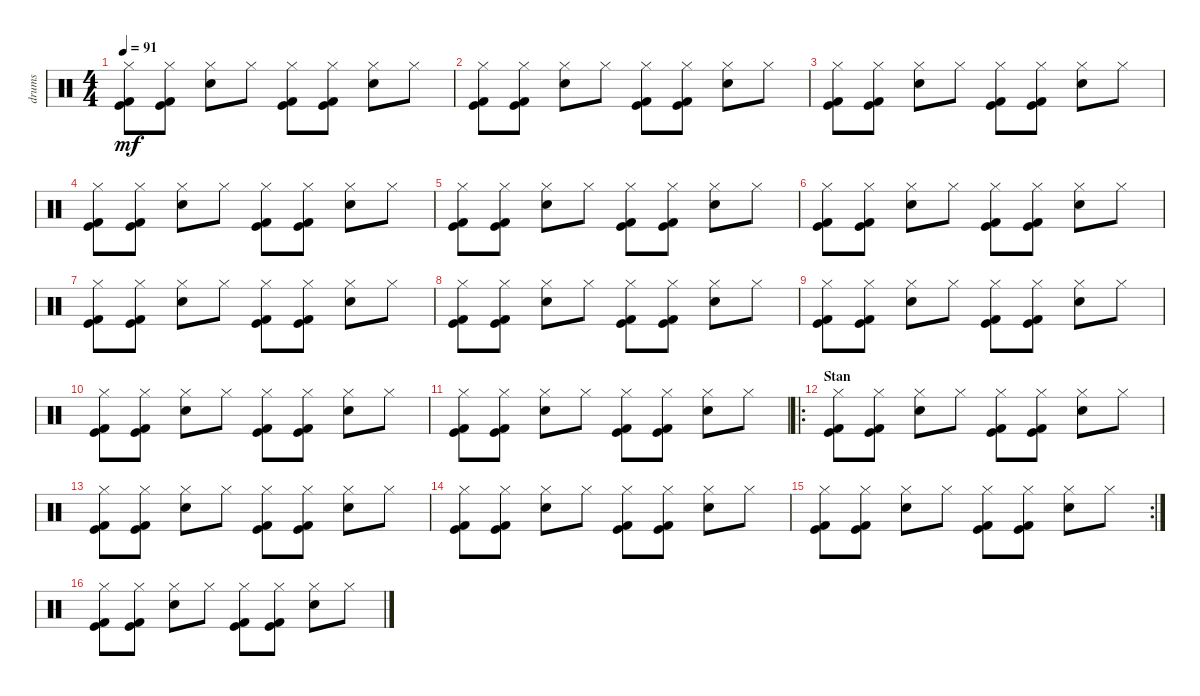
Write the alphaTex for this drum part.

\track ("drums" "drums") {instrument percussion}
\staff {score}
\articulation defaults
\ts (4 4)
\tempo 91
\clef neutral
\ks c
("Hi-Hat (closed)" "Kick (hit) 2" "Kick (hit)").8{dy mf} ("Hi-Hat (closed)" "Kick (hit) 2" "Kick (hit)").8 ("Hi-Hat (closed)" "Electric Snare (hit)").8 "Hi-Hat (closed)".8 ("Hi-Hat (closed)" "Kick (hit) 2" "Kick (hit)").8 ("Hi-Hat (closed)" "Kick (hit) 2" "Kick (hit)").8 ("Hi-Hat (closed)" "Electric Snare (hit)").8 "Hi-Hat (closed)".8 |
("Hi-Hat (closed)" "Kick (hit) 2" "Kick (hit)").8 ("Hi-Hat (closed)" "Kick (hit) 2" "Kick (hit)").8 ("Hi-Hat (closed)" "Electric Snare (hit)").8 "Hi-Hat (closed)".8 ("Hi-Hat (closed)" "Kick (hit) 2" "Kick (hit)").8 ("Hi-Hat (closed)" "Kick (hit) 2" "Kick (hit)").8 ("Hi-Hat (closed)" "Electric Snare (hit)").8 "Hi-Hat (closed)".8 |
("Hi-Hat (closed)" "Kick (hit) 2" "Kick (hit)").8 ("Hi-Hat (closed)" "Kick (hit) 2" "Kick (hit)").8 ("Hi-Hat (closed)" "Electric Snare (hit)").8 "Hi-Hat (closed)".8 ("Hi-Hat (closed)" "Kick (hit) 2" "Kick (hit)").8 ("Hi-Hat (closed)" "Kick (hit) 2" "Kick (hit)").8 ("Hi-Hat (closed)" "Electric Snare (hit)").8 "Hi-Hat (closed)".8 |
("Hi-Hat (closed)" "Kick (hit) 2" "Kick (hit)").8 ("Hi-Hat (closed)" "Kick (hit) 2" "Kick (hit)").8 ("Hi-Hat (closed)" "Electric Snare (hit)").8 "Hi-Hat (closed)".8 ("Hi-Hat (closed)" "Kick (hit) 2" "Kick (hit)").8 ("Hi-Hat (closed)" "Kick (hit) 2" "Kick (hit)").8 ("Hi-Hat (closed)" "Electric Snare (hit)").8 "Hi-Hat (closed)".8 |
("Hi-Hat (closed)" "Kick (hit) 2" "Kick (hit)").8 ("Hi-Hat (closed)" "Kick (hit) 2" "Kick (hit)").8 ("Hi-Hat (closed)" "Electric Snare (hit)").8 "Hi-Hat (closed)".8 ("Hi-Hat (closed)" "Kick (hit) 2" "Kick (hit)").8 ("Hi-Hat (closed)" "Kick (hit) 2" "Kick (hit)").8 ("Hi-Hat (closed)" "Electric Snare (hit)").8 "Hi-Hat (closed)".8 |
("Hi-Hat (closed)" "Kick (hit) 2" "Kick (hit)").8 ("Hi-Hat (closed)" "Kick (hit) 2" "Kick (hit)").8 ("Hi-Hat (closed)" "Electric Snare (hit)").8 "Hi-Hat (closed)".8 ("Hi-Hat (closed)" "Kick (hit) 2" "Kick (hit)").8 ("Hi-Hat (closed)" "Kick (hit) 2" "Kick (hit)").8 ("Hi-Hat (closed)" "Electric Snare (hit)").8 "Hi-Hat (closed)".8 |
("Hi-Hat (closed)" "Kick (hit) 2" "Kick (hit)").8 ("Hi-Hat (closed)" "Kick (hit) 2" "Kick (hit)").8 ("Hi-Hat (closed)" "Electric Snare (hit)").8 "Hi-Hat (closed)".8 ("Hi-Hat (closed)" "Kick (hit) 2" "Kick (hit)").8 ("Hi-Hat (closed)" "Kick (hit) 2" "Kick (hit)").8 ("Hi-Hat (closed)" "Electric Snare (hit)").8 "Hi-Hat (closed)".8 |
("Hi-Hat (closed)" "Kick (hit) 2" "Kick (hit)").8 ("Hi-Hat (closed)" "Kick (hit) 2" "Kick (hit)").8 ("Hi-Hat (closed)" "Electric Snare (hit)").8 "Hi-Hat (closed)".8 ("Hi-Hat (closed)" "Kick (hit) 2" "Kick (hit)").8 ("Hi-Hat (closed)" "Kick (hit) 2" "Kick (hit)").8 ("Hi-Hat (closed)" "Electric Snare (hit)").8 "Hi-Hat (closed)".8 |
("Hi-Hat (closed)" "Kick (hit) 2" "Kick (hit)").8 ("Hi-Hat (closed)" "Kick (hit) 2" "Kick (hit)").8 ("Hi-Hat (closed)" "Electric Snare (hit)").8 "Hi-Hat (closed)".8 ("Hi-Hat (closed)" "Kick (hit) 2" "Kick (hit)").8 ("Hi-Hat (closed)" "Kick (hit) 2" "Kick (hit)").8 ("Hi-Hat (closed)" "Electric Snare (hit)").8 "Hi-Hat (closed)".8 |
("Hi-Hat (closed)" "Kick (hit) 2" "Kick (hit)").8 ("Hi-Hat (closed)" "Kick (hit) 2" "Kick (hit)").8 ("Hi-Hat (closed)" "Electric Snare (hit)").8 "Hi-Hat (closed)".8 ("Hi-Hat (closed)" "Kick (hit) 2" "Kick (hit)").8 ("Hi-Hat (closed)" "Kick (hit) 2" "Kick (hit)").8 ("Hi-Hat (closed)" "Electric Snare (hit)").8 "Hi-Hat (closed)".8 |
("Hi-Hat (closed)" "Kick (hit) 2" "Kick (hit)").8 ("Hi-Hat (closed)" "Kick (hit) 2" "Kick (hit)").8 ("Hi-Hat (closed)" "Electric Snare (hit)").8 "Hi-Hat (closed)".8 ("Hi-Hat (closed)" "Kick (hit) 2" "Kick (hit)").8 ("Hi-Hat (closed)" "Kick (hit) 2" "Kick (hit)").8 ("Hi-Hat (closed)" "Electric Snare (hit)").8 "Hi-Hat (closed)".8 |
\ro
\section ("" "Stan")
("Hi-Hat (closed)" "Kick (hit) 2" "Kick (hit)").8 ("Hi-Hat (closed)" "Kick (hit) 2" "Kick (hit)").8 ("Hi-Hat (closed)" "Electric Snare (hit)").8 "Hi-Hat (closed)".8 ("Hi-Hat (closed)" "Kick (hit) 2" "Kick (hit)").8 ("Hi-Hat (closed)" "Kick (hit) 2" "Kick (hit)").8 ("Hi-Hat (closed)" "Electric Snare (hit)").8 "Hi-Hat (closed)".8 |
("Hi-Hat (closed)" "Kick (hit) 2" "Kick (hit)").8 ("Hi-Hat (closed)" "Kick (hit) 2" "Kick (hit)").8 ("Hi-Hat (closed)" "Electric Snare (hit)").8 "Hi-Hat (closed)".8 ("Hi-Hat (closed)" "Kick (hit) 2" "Kick (hit)").8 ("Hi-Hat (closed)" "Kick (hit) 2" "Kick (hit)").8 ("Hi-Hat (closed)" "Electric Snare (hit)").8 "Hi-Hat (closed)".8 |
("Hi-Hat (closed)" "Kick (hit) 2" "Kick (hit)").8 ("Hi-Hat (closed)" "Kick (hit) 2" "Kick (hit)").8 ("Hi-Hat (closed)" "Electric Snare (hit)").8 "Hi-Hat (closed)".8 ("Hi-Hat (closed)" "Kick (hit) 2" "Kick (hit)").8 ("Hi-Hat (closed)" "Kick (hit) 2" "Kick (hit)").8 ("Hi-Hat (closed)" "Electric Snare (hit)").8 "Hi-Hat (closed)".8 |
\rc 2
("Hi-Hat (closed)" "Kick (hit) 2" "Kick (hit)").8 ("Hi-Hat (closed)" "Kick (hit) 2" "Kick (hit)").8 ("Hi-Hat (closed)" "Electric Snare (hit)").8 "Hi-Hat (closed)".8 ("Hi-Hat (closed)" "Kick (hit) 2" "Kick (hit)").8 ("Hi-Hat (closed)" "Kick (hit) 2" "Kick (hit)").8 ("Hi-Hat (closed)" "Electric Snare (hit)").8 "Hi-Hat (closed)".8 |
("Hi-Hat (closed)" "Kick (hit) 2" "Kick (hit)").8 ("Hi-Hat (closed)" "Kick (hit) 2" "Kick (hit)").8 ("Hi-Hat (closed)" "Electric Snare (hit)").8 "Hi-Hat (closed)".8 ("Hi-Hat (closed)" "Kick (hit) 2" "Kick (hit)").8 ("Hi-Hat (closed)" "Kick (hit) 2" "Kick (hit)").8 ("Hi-Hat (closed)" "Electric Snare (hit)").8 "Hi-Hat (closed)".8
